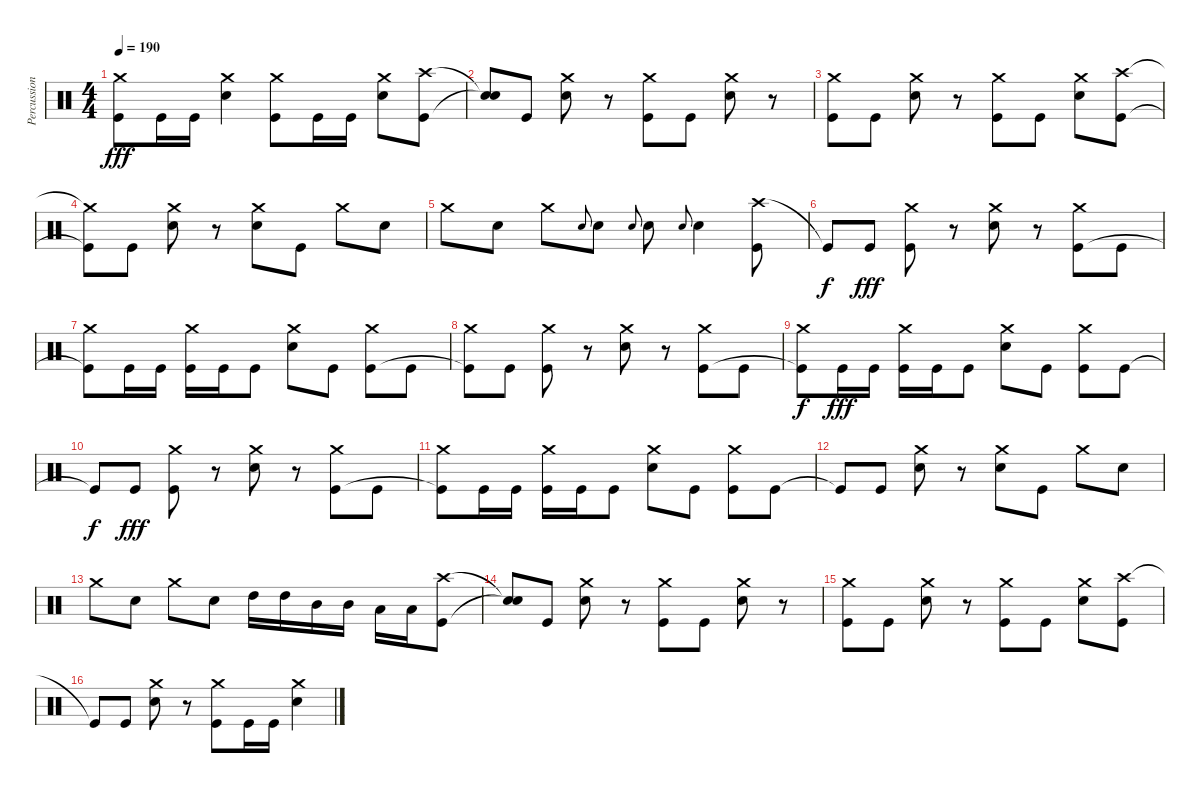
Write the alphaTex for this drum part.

\track ("Percussion" "Percussion") {instrument percussion}
\staff {score}
\articulation defaults
\ts (4 4)
\tempo 190
\clef neutral
\ks c
("Crash medium (hit)" "Kick (hit)").8{dy fff} "Kick (hit)".16 "Kick (hit)".16 ("Crash medium (hit)" "Snare (hit) 2").4 ("Crash medium (hit)" "Kick (hit)").8 "Kick (hit)".16 "Kick (hit)".16 ("Crash medium (hit)" "Snare (hit) 2").8 ("Crash high (hit)" "Kick (hit)").8 |
("Snare (hit)"{t} "Snare (hit)"{t}).8 "Kick (hit)".8 ("Crash medium (hit)" "Snare (hit) 2").8 r.8 ("Crash medium (hit)" "Kick (hit)").8 "Kick (hit)".8 ("Crash medium (hit)" "Snare (hit) 2").8 r.8 |
("Crash medium (hit)" "Kick (hit)").8 "Kick (hit)".8 ("Crash medium (hit)" "Snare (hit) 2").8 r.8 ("Crash medium (hit)" "Kick (hit)").8 "Kick (hit)".8 ("Crash medium (hit)" "Snare (hit) 2").8 ("Crash high (hit)" "Kick (hit)").8 |
("Crash medium (hit)"{t} "Kick (hit)"{t}).8 "Kick (hit)".8 ("Crash medium (hit)" "Snare (hit) 2").8 r.8 ("Crash medium (hit)" "Snare (hit) 2").8 "Kick (hit)".8 "Crash medium (hit)".8 "Snare (hit) 2".8 |
"Crash medium (hit)".8 "Snare (hit) 2".8 "Crash medium (hit)".8 "Snare (hit) 2".8{gr onbeat} "Snare (hit) 2".8 "Snare (hit) 2".8{gr onbeat} "Snare (hit) 2".8 "Snare (hit) 2".8{gr onbeat} "Snare (hit) 2".4 ("Crash high (hit)" "Kick (hit)").8 |
"Kick (hit)"{t}.8{dy f} "Kick (hit)".8{dy fff} ("Crash medium (hit)" "Kick (hit)").8 r.8 ("Crash medium (hit)" "Snare (hit) 2").8 r.8 ("Crash medium (hit)" "Kick (hit)").8 "Kick (hit)".8 |
("Crash medium (hit)" "Kick (hit)"{t}).8 "Kick (hit)".16 "Kick (hit)".16 ("Crash medium (hit)" "Kick (hit)").16 "Kick (hit)".16 "Kick (hit)".8 ("Crash medium (hit)" "Snare (hit) 2").8 "Kick (hit)".8 ("Crash medium (hit)" "Kick (hit)").8 "Kick (hit)".8 |
("Crash medium (hit)" "Kick (hit)"{t}).8 "Kick (hit)".8 ("Crash medium (hit)" "Kick (hit)").8 r.8 ("Crash medium (hit)" "Snare (hit) 2").8 r.8 ("Crash medium (hit)" "Kick (hit)").8 "Kick (hit)".8 |
("Crash medium (hit)" "Kick (hit)"{t}).8{dy f} "Kick (hit)".16{dy fff} "Kick (hit)".16 ("Crash medium (hit)" "Kick (hit)").16 "Kick (hit)".16 "Kick (hit)".8 ("Crash medium (hit)" "Snare (hit) 2").8 "Kick (hit)".8 ("Crash medium (hit)" "Kick (hit)").8 "Kick (hit)".8 |
"Kick (hit)"{t}.8{dy f} "Kick (hit)".8{dy fff} ("Crash medium (hit)" "Kick (hit)").8 r.8 ("Crash medium (hit)" "Snare (hit) 2").8 r.8 ("Crash medium (hit)" "Kick (hit)").8 "Kick (hit)".8 |
("Crash medium (hit)" "Kick (hit)"{t}).8 "Kick (hit)".16 "Kick (hit)".16 ("Crash medium (hit)" "Kick (hit)").16 "Kick (hit)".16 "Kick (hit)".8 ("Crash medium (hit)" "Snare (hit) 2").8 "Kick (hit)".8 ("Crash medium (hit)" "Kick (hit)").8 "Kick (hit)".8 |
"Kick (hit)"{t}.8 "Kick (hit)".8 ("Crash medium (hit)" "Snare (hit) 2").8 r.8 ("Crash medium (hit)" "Snare (hit) 2").8 "Kick (hit)".8 "Crash medium (hit)".8 "Snare (hit) 2".8 |
"Crash medium (hit)".8 "Snare (hit) 2".8 "Crash medium (hit)".8 "Snare (hit) 2".8 "High Tom (hit)".16 "High Tom (hit)".16 "Mid Tom (hit)".16 "Mid Tom (hit)".16 "Low Tom (hit)".16 "Low Tom (hit)".16 ("Crash high (hit)" "Kick (hit)").8 |
("Snare (hit)"{t} "Snare (hit)"{t}).8 "Kick (hit)".8 ("Crash medium (hit)" "Snare (hit) 2").8 r.8 ("Crash medium (hit)" "Kick (hit)").8 "Kick (hit)".8 ("Crash medium (hit)" "Snare (hit) 2").8 r.8 |
("Crash medium (hit)" "Kick (hit)").8 "Kick (hit)".8 ("Crash medium (hit)" "Snare (hit) 2").8 r.8 ("Crash medium (hit)" "Kick (hit)").8 "Kick (hit)".8 ("Crash medium (hit)" "Snare (hit) 2").8 ("Crash high (hit)" "Kick (hit)").8 |
"Kick (hit)"{t}.8 "Kick (hit)".8 ("Crash medium (hit)" "Snare (hit) 2").8 r.8 ("Crash medium (hit)" "Kick (hit)").8 "Kick (hit)".16 "Kick (hit)".16 ("Crash medium (hit)" "Snare (hit) 2").4
